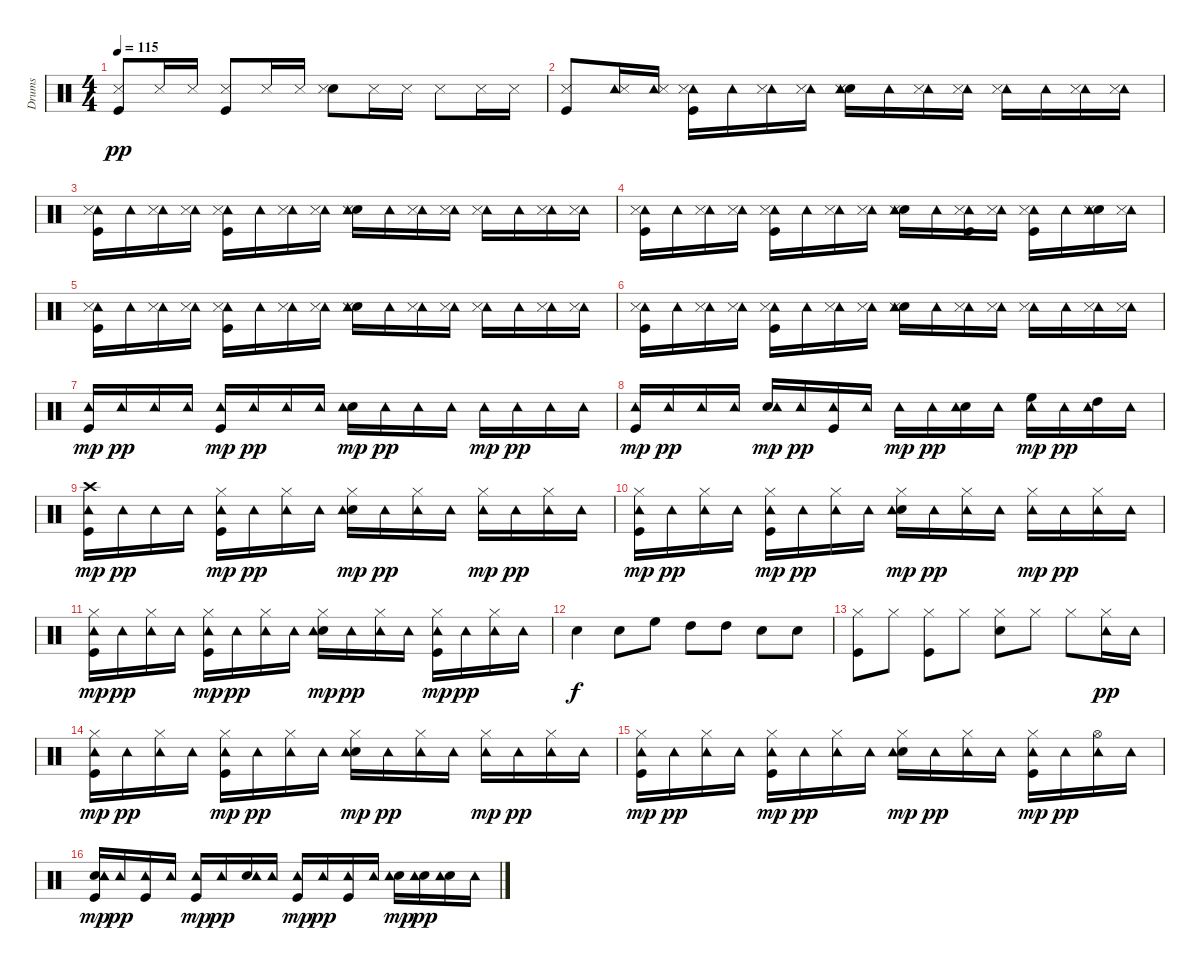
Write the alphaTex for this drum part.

\track ("Drums" "Drums") {instrument percussion}
\staff {score}
\articulation defaults
\ts (4 4)
\tempo 115
\clef neutral
\ks c
("Snare (side stick) 3" "Kick (hit)").8{dy pp} "Snare (side stick) 3".16 "Snare (side stick) 3".16 ("Snare (side stick) 3" "Kick (hit)").8 "Snare (side stick) 3".16 "Snare (side stick) 3".16 ("Snare (hit) 2" "Snare (side stick) 3").8 "Snare (side stick) 3".16 "Snare (side stick) 3".16 "Snare (side stick) 3".8 "Snare (side stick) 3".16 "Snare (side stick) 3".16 |
("Snare (side stick) 3" "Kick (hit)").8 ("Tambourine (hit)" "Snare (side stick) 3").16 ("Tambourine (hit)" "Snare (side stick) 3").16 ("Tambourine (hit)" "Snare (side stick) 3" "Kick (hit)").16 "Tambourine (hit)".16 ("Tambourine (hit)" "Snare (side stick) 3").16 ("Tambourine (hit)" "Snare (side stick) 3").16 ("Snare (hit) 2" "Tambourine (hit)" "Snare (side stick) 3").16 "Tambourine (hit)".16 ("Tambourine (hit)" "Snare (side stick) 3").16 ("Tambourine (hit)" "Snare (side stick) 3").16 ("Tambourine (hit)" "Snare (side stick) 3").16 "Tambourine (hit)".16 ("Tambourine (hit)" "Snare (side stick) 3").16 ("Tambourine (hit)" "Snare (side stick) 3").16 |
("Tambourine (hit)" "Snare (side stick) 3" "Kick (hit)").16 "Tambourine (hit)".16 ("Tambourine (hit)" "Snare (side stick) 3").16 ("Tambourine (hit)" "Snare (side stick) 3").16 ("Tambourine (hit)" "Snare (side stick) 3" "Kick (hit)").16 "Tambourine (hit)".16 ("Tambourine (hit)" "Snare (side stick) 3").16 ("Tambourine (hit)" "Snare (side stick) 3").16 ("Snare (hit) 2" "Tambourine (hit)" "Snare (side stick) 3").16 "Tambourine (hit)".16 ("Tambourine (hit)" "Snare (side stick) 3").16 ("Tambourine (hit)" "Snare (side stick) 3").16 ("Tambourine (hit)" "Snare (side stick) 3").16 "Tambourine (hit)".16 ("Tambourine (hit)" "Snare (side stick) 3").16 ("Tambourine (hit)" "Snare (side stick) 3").16 |
("Tambourine (hit)" "Snare (side stick) 3" "Kick (hit)").16 "Tambourine (hit)".16 ("Tambourine (hit)" "Snare (side stick) 3").16 ("Tambourine (hit)" "Snare (side stick) 3").16 ("Tambourine (hit)" "Snare (side stick) 3" "Kick (hit)").16 "Tambourine (hit)".16 ("Tambourine (hit)" "Snare (side stick) 3").16 ("Tambourine (hit)" "Snare (side stick) 3").16 ("Snare (hit) 2" "Tambourine (hit)" "Snare (side stick) 3").16 "Tambourine (hit)".16 ("Tambourine (hit)" "Snare (side stick) 3" "Kick (hit)").16 ("Tambourine (hit)" "Snare (side stick) 3").16 ("Tambourine (hit)" "Snare (side stick) 3" "Kick (hit)").16 "Tambourine (hit)".16 ("Snare (hit) 2" "Tambourine (hit)" "Snare (side stick) 3").16 ("Tambourine (hit)" "Snare (side stick) 3").16 |
("Tambourine (hit)" "Snare (side stick) 3" "Kick (hit)").16 "Tambourine (hit)".16 ("Tambourine (hit)" "Snare (side stick) 3").16 ("Tambourine (hit)" "Snare (side stick) 3").16 ("Tambourine (hit)" "Snare (side stick) 3" "Kick (hit)").16 "Tambourine (hit)".16 ("Tambourine (hit)" "Snare (side stick) 3").16 ("Tambourine (hit)" "Snare (side stick) 3").16 ("Snare (hit) 2" "Tambourine (hit)" "Snare (side stick) 3").16 "Tambourine (hit)".16 ("Tambourine (hit)" "Snare (side stick) 3").16 ("Tambourine (hit)" "Snare (side stick) 3").16 ("Tambourine (hit)" "Snare (side stick) 3").16 "Tambourine (hit)".16 ("Tambourine (hit)" "Snare (side stick) 3").16 ("Tambourine (hit)" "Snare (side stick) 3").16 |
("Tambourine (hit)" "Snare (side stick) 3" "Kick (hit)").16 "Tambourine (hit)".16 ("Tambourine (hit)" "Snare (side stick) 3").16 ("Tambourine (hit)" "Snare (side stick) 3").16 ("Tambourine (hit)" "Snare (side stick) 3" "Kick (hit)").16 "Tambourine (hit)".16 ("Tambourine (hit)" "Snare (side stick) 3").16 ("Tambourine (hit)" "Snare (side stick) 3").16 ("Snare (hit) 2" "Tambourine (hit)" "Snare (side stick) 3").16 "Tambourine (hit)".16 ("Tambourine (hit)" "Snare (side stick) 3").16 ("Tambourine (hit)" "Snare (side stick) 3").16 ("Tambourine (hit)" "Snare (side stick) 3").16 "Tambourine (hit)".16 ("Tambourine (hit)" "Snare (side stick) 3").16 ("Tambourine (hit)" "Snare (side stick) 3").16 |
("Tambourine (hit)" "Kick (hit)").16{dy mp} "Tambourine (hit)".16{dy pp} "Tambourine (hit)".16 "Tambourine (hit)".16 ("Tambourine (hit)" "Kick (hit)").16{dy mp} "Tambourine (hit)".16{dy pp} "Tambourine (hit)".16 "Tambourine (hit)".16 ("Snare (hit) 2" "Tambourine (hit)").16{dy mp} "Tambourine (hit)".16{dy pp} "Tambourine (hit)".16 "Tambourine (hit)".16 "Tambourine (hit)".16{dy mp} "Tambourine (hit)".16{dy pp} "Tambourine (hit)".16 "Tambourine (hit)".16 |
("Tambourine (hit)" "Kick (hit)").16{dy mp} "Tambourine (hit)".16{dy pp} "Tambourine (hit)".16 "Tambourine (hit)".16 ("Snare (hit) 2" "Tambourine (hit)").16{dy mp} "Tambourine (hit)".16{dy pp} ("Tambourine (hit)" "Kick (hit)").16 "Tambourine (hit)".16 "Tambourine (hit)".16{dy mp} "Tambourine (hit)".16{dy pp} ("Snare (hit) 2" "Tambourine (hit)").16 "Tambourine (hit)".16 ("High Floor Tom (hit)" "Tambourine (hit)").16{dy mp} "Tambourine (hit)".16{dy pp} ("High Tom (hit)" "Tambourine (hit)").16 "Tambourine (hit)".16 |
("Crash high (hit)" "Tambourine (hit)" "Kick (hit)").16{dy mp} "Tambourine (hit)".16{dy pp} "Tambourine (hit)".16 "Tambourine (hit)".16 ("Hi-Hat (closed)" "Tambourine (hit)" "Kick (hit)").16{dy mp} "Tambourine (hit)".16{dy pp} ("Hi-Hat (closed)" "Tambourine (hit)").16 "Tambourine (hit)".16 ("Hi-Hat (closed)" "Snare (hit) 2" "Tambourine (hit)").16{dy mp} "Tambourine (hit)".16{dy pp} ("Hi-Hat (closed)" "Tambourine (hit)").16 "Tambourine (hit)".16 ("Hi-Hat (closed)" "Tambourine (hit)").16{dy mp} "Tambourine (hit)".16{dy pp} ("Hi-Hat (closed)" "Tambourine (hit)").16 "Tambourine (hit)".16 |
("Hi-Hat (closed)" "Tambourine (hit)" "Kick (hit)").16{dy mp} "Tambourine (hit)".16{dy pp} ("Hi-Hat (closed)" "Tambourine (hit)").16 "Tambourine (hit)".16 ("Hi-Hat (closed)" "Tambourine (hit)" "Kick (hit)").16{dy mp} "Tambourine (hit)".16{dy pp} ("Hi-Hat (closed)" "Tambourine (hit)").16 "Tambourine (hit)".16 ("Hi-Hat (closed)" "Snare (hit) 2" "Tambourine (hit)").16{dy mp} "Tambourine (hit)".16{dy pp} ("Hi-Hat (closed)" "Tambourine (hit)").16 "Tambourine (hit)".16 ("Hi-Hat (closed)" "Tambourine (hit)").16{dy mp} "Tambourine (hit)".16{dy pp} ("Hi-Hat (closed)" "Tambourine (hit)").16 "Tambourine (hit)".16 |
("Hi-Hat (closed)" "Tambourine (hit)" "Kick (hit)").16{dy mp} "Tambourine (hit)".16{dy pp} ("Hi-Hat (closed)" "Tambourine (hit)").16 "Tambourine (hit)".16 ("Hi-Hat (closed)" "Tambourine (hit)" "Kick (hit)").16{dy mp} "Tambourine (hit)".16{dy pp} ("Hi-Hat (closed)" "Tambourine (hit)").16 "Tambourine (hit)".16 ("Hi-Hat (closed)" "Snare (hit) 2" "Tambourine (hit)").16{dy mp} "Tambourine (hit)".16{dy pp} ("Hi-Hat (closed)" "Tambourine (hit)").16 "Tambourine (hit)".16 ("Hi-Hat (closed)" "Tambourine (hit)" "Kick (hit)").16{dy mp} "Tambourine (hit)".16{dy pp} ("Hi-Hat (closed)" "Tambourine (hit)").16 "Tambourine (hit)".16 |
"Snare (hit) 2".4{dy f} "Snare (hit) 2".8 "High Floor Tom (hit)".8 "High Tom (hit)".8 "High Tom (hit)".8 "Snare (hit) 2".8 "Snare (hit) 2".8 |
("Hi-Hat (closed)" "Kick (hit)").8 "Hi-Hat (closed)".8 ("Hi-Hat (closed)" "Kick (hit)").8 "Hi-Hat (closed)".8 ("Hi-Hat (closed)" "Snare (hit) 2").8 "Hi-Hat (closed)".8 "Hi-Hat (closed)".8 ("Hi-Hat (closed)" "Tambourine (hit)").16{dy pp} "Tambourine (hit)".16 |
("Hi-Hat (closed)" "Tambourine (hit)" "Kick (hit)").16{dy mp} "Tambourine (hit)".16{dy pp} ("Hi-Hat (closed)" "Tambourine (hit)").16 "Tambourine (hit)".16 ("Hi-Hat (closed)" "Tambourine (hit)" "Kick (hit)").16{dy mp} "Tambourine (hit)".16{dy pp} ("Hi-Hat (closed)" "Tambourine (hit)").16 "Tambourine (hit)".16 ("Hi-Hat (closed)" "Snare (hit) 2" "Tambourine (hit)").16{dy mp} "Tambourine (hit)".16{dy pp} ("Hi-Hat (closed)" "Tambourine (hit)").16 "Tambourine (hit)".16 ("Hi-Hat (closed)" "Tambourine (hit)").16{dy mp} "Tambourine (hit)".16{dy pp} ("Hi-Hat (closed)" "Tambourine (hit)").16 "Tambourine (hit)".16 |
("Hi-Hat (closed)" "Tambourine (hit)" "Kick (hit)").16{dy mp} "Tambourine (hit)".16{dy pp} ("Hi-Hat (closed)" "Tambourine (hit)").16 "Tambourine (hit)".16 ("Hi-Hat (closed)" "Tambourine (hit)" "Kick (hit)").16{dy mp} "Tambourine (hit)".16{dy pp} ("Hi-Hat (closed)" "Tambourine (hit)").16 "Tambourine (hit)".16 ("Hi-Hat (closed)" "Snare (hit) 2" "Tambourine (hit)").16{dy mp} "Tambourine (hit)".16{dy pp} ("Hi-Hat (closed)" "Tambourine (hit)").16 "Tambourine (hit)".16 ("Hi-Hat (closed)" "Tambourine (hit)" "Kick (hit)").16{dy mp} "Tambourine (hit)".16{dy pp} ("Hi-Hat (open)" "Tambourine (hit)").16 "Tambourine (hit)".16 |
("Snare (hit) 2" "Tambourine (hit)" "Kick (hit)").16{dy mp} "Tambourine (hit)".16{dy pp} ("Tambourine (hit)" "Kick (hit)").16 "Tambourine (hit)".16 ("Tambourine (hit)" "Kick (hit)").16{dy mp} "Tambourine (hit)".16{dy pp} ("Snare (hit) 2" "Tambourine (hit)").16 "Tambourine (hit)".16 ("Tambourine (hit)" "Kick (hit)").16{dy mp} "Tambourine (hit)".16{dy pp} ("Tambourine (hit)" "Kick (hit)").16 "Tambourine (hit)".16 ("Snare (hit) 2" "Tambourine (hit)").16{dy mp} ("Snare (hit) 2" "Tambourine (hit)").16{dy pp} ("Snare (hit) 2" "Tambourine (hit)").16 "Tambourine (hit)".16
